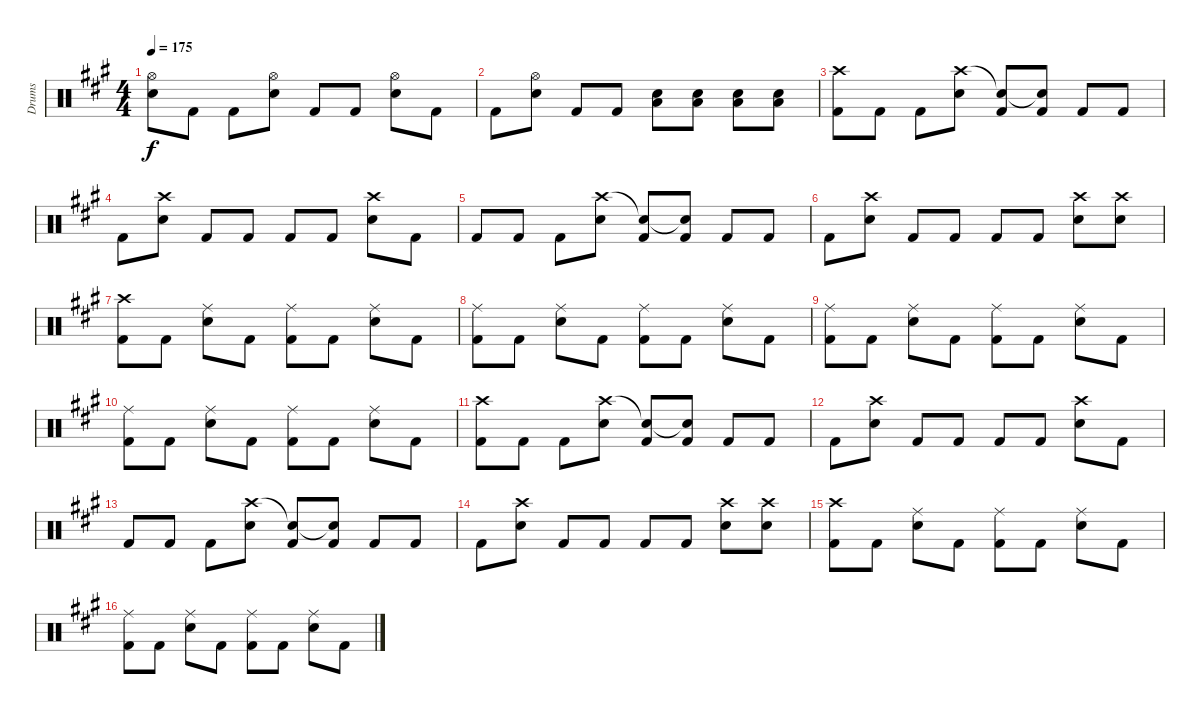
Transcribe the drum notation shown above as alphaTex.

\track ("Drums" "Drums") {instrument percussion}
\staff {score}
\articulation defaults
\ts (4 4)
\tempo 175
\clef neutral
\ks a
("Hi-Hat (open)" "Snare (hit) 2").8{dy f} "Kick (hit) 2".8 "Kick (hit) 2".8 ("Hi-Hat (open)" "Snare (hit) 2").8 "Kick (hit) 2".8 "Kick (hit) 2".8 ("Hi-Hat (open)" "Snare (hit) 2").8 "Kick (hit) 2".8 |
"Kick (hit) 2".8 ("Hi-Hat (open)" "Snare (hit) 2").8 "Kick (hit) 2".8 "Kick (hit) 2".8 ("Snare (hit) 2" "Low Floor Tom (hit)").8 ("Snare (hit) 2" "Low Floor Tom (hit)").8 ("Snare (hit) 2" "Low Floor Tom (hit)").8 ("Snare (hit) 2" "Low Floor Tom (hit)").8 |
("Crash high (hit)" "Kick (hit) 2").8 "Kick (hit) 2".8 "Kick (hit) 2".8 ("Crash high (hit)" "Snare (hit) 2").8 ("Snare (hit)"{t} "Kick (hit) 2").8 ("Snare (hit)"{t} "Kick (hit) 2").8 "Kick (hit) 2".8 "Kick (hit) 2".8 |
"Kick (hit) 2".8 ("Crash high (hit)" "Snare (hit) 2").8 "Kick (hit) 2".8 "Kick (hit) 2".8 "Kick (hit) 2".8 "Kick (hit) 2".8 ("Crash high (hit)" "Snare (hit) 2").8 "Kick (hit) 2".8 |
"Kick (hit) 2".8 "Kick (hit) 2".8 "Kick (hit) 2".8 ("Crash high (hit)" "Snare (hit) 2").8 ("Snare (hit)"{t} "Kick (hit) 2").8 ("Snare (hit)"{t} "Kick (hit) 2").8 "Kick (hit) 2".8 "Kick (hit) 2".8 |
"Kick (hit) 2".8 ("Crash high (hit)" "Snare (hit) 2").8 "Kick (hit) 2".8 "Kick (hit) 2".8 "Kick (hit) 2".8 "Kick (hit) 2".8 ("Crash high (hit)" "Snare (hit) 2").8 ("Crash high (hit)" "Snare (hit) 2").8 |
("Crash high (hit)" "Kick (hit) 2").8 "Kick (hit) 2".8 ("Ride (middle)" "Snare (hit) 2").8 "Kick (hit) 2".8 ("Ride (middle)" "Kick (hit) 2").8 "Kick (hit) 2".8 ("Ride (middle)" "Snare (hit) 2").8 "Kick (hit) 2".8 |
("Ride (middle)" "Kick (hit) 2").8 "Kick (hit) 2".8 ("Ride (middle)" "Snare (hit) 2").8 "Kick (hit) 2".8 ("Ride (middle)" "Kick (hit) 2").8 "Kick (hit) 2".8 ("Ride (middle)" "Snare (hit) 2").8 "Kick (hit) 2".8 |
("Ride (middle)" "Kick (hit) 2").8 "Kick (hit) 2".8 ("Ride (middle)" "Snare (hit) 2").8 "Kick (hit) 2".8 ("Ride (middle)" "Kick (hit) 2").8 "Kick (hit) 2".8 ("Ride (middle)" "Snare (hit) 2").8 "Kick (hit) 2".8 |
("Ride (middle)" "Kick (hit) 2").8 "Kick (hit) 2".8 ("Ride (middle)" "Snare (hit) 2").8 "Kick (hit) 2".8 ("Ride (middle)" "Kick (hit) 2").8 "Kick (hit) 2".8 ("Ride (middle)" "Snare (hit) 2").8 "Kick (hit) 2".8 |
("Crash high (hit)" "Kick (hit) 2").8 "Kick (hit) 2".8 "Kick (hit) 2".8 ("Crash high (hit)" "Snare (hit) 2").8 ("Snare (hit)"{t} "Kick (hit) 2").8 ("Snare (hit)"{t} "Kick (hit) 2").8 "Kick (hit) 2".8 "Kick (hit) 2".8 |
"Kick (hit) 2".8 ("Crash high (hit)" "Snare (hit) 2").8 "Kick (hit) 2".8 "Kick (hit) 2".8 "Kick (hit) 2".8 "Kick (hit) 2".8 ("Crash high (hit)" "Snare (hit) 2").8 "Kick (hit) 2".8 |
"Kick (hit) 2".8 "Kick (hit) 2".8 "Kick (hit) 2".8 ("Crash high (hit)" "Snare (hit) 2").8 ("Snare (hit)"{t} "Kick (hit) 2").8 ("Snare (hit)"{t} "Kick (hit) 2").8 "Kick (hit) 2".8 "Kick (hit) 2".8 |
"Kick (hit) 2".8 ("Crash high (hit)" "Snare (hit) 2").8 "Kick (hit) 2".8 "Kick (hit) 2".8 "Kick (hit) 2".8 "Kick (hit) 2".8 ("Crash high (hit)" "Snare (hit) 2").8 ("Crash high (hit)" "Snare (hit) 2").8 |
("Crash high (hit)" "Kick (hit) 2").8 "Kick (hit) 2".8 ("Ride (middle)" "Snare (hit) 2").8 "Kick (hit) 2".8 ("Ride (middle)" "Kick (hit) 2").8 "Kick (hit) 2".8 ("Ride (middle)" "Snare (hit) 2").8 "Kick (hit) 2".8 |
("Ride (middle)" "Kick (hit) 2").8 "Kick (hit) 2".8 ("Ride (middle)" "Snare (hit) 2").8 "Kick (hit) 2".8 ("Ride (middle)" "Kick (hit) 2").8 "Kick (hit) 2".8 ("Ride (middle)" "Snare (hit) 2").8 "Kick (hit) 2".8
